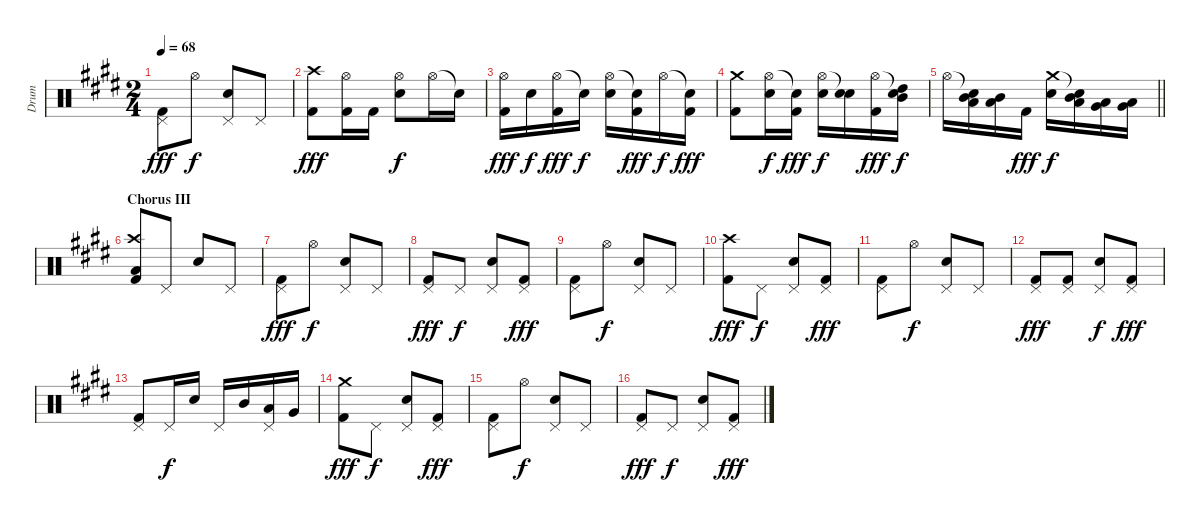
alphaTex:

\track ("Drum" "Drum") {instrument percussion}
\staff {score}
\articulation defaults
\ts (2 4)
\tempo 68
\clef neutral
\ks e
("Pedal Hi-Hat (hit)" "Kick (hit) 2").8{dy fff} "Hi-Hat (open)".8{dy f} ("Pedal Hi-Hat (hit)" "Snare (hit) 2").8 "Pedal Hi-Hat (hit)".8 |
("Crash high (hit)" "Kick (hit) 2").8{dy fff} ("Hi-Hat (open)" "Kick (hit) 2").16 "Kick (hit) 2".16 ("Hi-Hat (open)" "Snare (hit) 2").8{dy f} "Hi-Hat (open)".16 "Snare (hit)"{t}.16 |
("Hi-Hat (open)" "Kick (hit) 2").16{dy fff} "Snare (hit) 2".16{dy f} ("Hi-Hat (open)" "Kick (hit) 2").16{dy fff} "Snare (hit)"{t}.16{dy f} ("Hi-Hat (open)" "Snare (hit) 2").16 ("Snare (hit)"{t} "Kick (hit) 2").16{dy fff} "Hi-Hat (open)".16{dy f} ("Snare (hit)"{t} "Kick (hit) 2").16{dy fff} |
("Crash medium (hit)" "Kick (hit) 2").8 ("Hi-Hat (open)" "Snare (hit) 2").16{dy f} ("Snare (hit)"{t} "Kick (hit) 2").16{dy fff} ("Hi-Hat (open)" "Snare (hit) 2").16{dy f} ("Snare (hit)"{t} "Snare (hit) 2").16 ("Hi-Hat (open)" "Kick (hit) 2").16{dy fff} ("Snare (hit)"{t} "High Tom (hit)" "Mid Tom (hit)").16{dy f} |
\barLineRight lightlight "Hi-Hat (open)".16
("Snare (hit)"{t} "Mid Tom (hit)" "Low Tom (hit)").16 ("Mid Tom (hit)" "Low Tom (hit)").16 "Kick (hit) 2".16{dy fff} ("Crash medium (hit)" "Snare (hit) 2").16{dy f} ("Snare (hit)"{t} "Mid Tom (hit)" "Low Tom (hit)").16 ("Low Tom (hit)" "Very Low Tom (hit)").16 ("Very Low Tom (hit)" "Low Floor Tom (hit)").16 |
\section ("" "Chorus III")
("Crash high (hit)" "Low Floor Tom (hit)" "Kick (hit) 2").8 "Pedal Hi-Hat (hit)".8 "Snare (hit) 2".8 "Pedal Hi-Hat (hit)".8 |
("Pedal Hi-Hat (hit)" "Kick (hit) 2").8{dy fff} "Hi-Hat (open)".8{dy f} ("Pedal Hi-Hat (hit)" "Snare (hit) 2").8 "Pedal Hi-Hat (hit)".8 |
("Pedal Hi-Hat (hit)" "Kick (hit) 2").8{dy fff} "Pedal Hi-Hat (hit)".8{dy f} ("Pedal Hi-Hat (hit)" "Snare (hit) 2").8 ("Pedal Hi-Hat (hit)" "Kick (hit) 2").8{dy fff} |
("Pedal Hi-Hat (hit)" "Kick (hit) 2").8 "Hi-Hat (open)".8{dy f} ("Pedal Hi-Hat (hit)" "Snare (hit) 2").8 "Pedal Hi-Hat (hit)".8 |
("Crash high (hit)" "Kick (hit) 2").8{dy fff} "Pedal Hi-Hat (hit)".8{dy f} ("Pedal Hi-Hat (hit)" "Snare (hit) 2").8 ("Pedal Hi-Hat (hit)" "Kick (hit) 2").8{dy fff} |
("Pedal Hi-Hat (hit)" "Kick (hit) 2").8 "Hi-Hat (open)".8{dy f} ("Pedal Hi-Hat (hit)" "Snare (hit) 2").8 "Pedal Hi-Hat (hit)".8 |
("Pedal Hi-Hat (hit)" "Kick (hit) 2").8{dy fff} ("Pedal Hi-Hat (hit)" "Kick (hit) 2").8 ("Pedal Hi-Hat (hit)" "Snare (hit) 2").8{dy f} ("Pedal Hi-Hat (hit)" "Kick (hit) 2").8{dy fff} |
("Pedal Hi-Hat (hit)" "Kick (hit) 2").8 "Pedal Hi-Hat (hit)".16{dy f} "Snare (hit) 2".16 "Pedal Hi-Hat (hit)".16 "Mid Tom (hit)".16 ("Pedal Hi-Hat (hit)" "Low Tom (hit)").16 "Very Low Tom (hit)".16 |
("Crash medium (hit)" "Kick (hit) 2").8{dy fff} "Pedal Hi-Hat (hit)".8{dy f} ("Pedal Hi-Hat (hit)" "Snare (hit) 2").8 ("Pedal Hi-Hat (hit)" "Kick (hit) 2").8{dy fff} |
("Pedal Hi-Hat (hit)" "Kick (hit) 2").8 "Hi-Hat (open)".8{dy f} ("Pedal Hi-Hat (hit)" "Snare (hit) 2").8 "Pedal Hi-Hat (hit)".8 |
("Pedal Hi-Hat (hit)" "Kick (hit) 2").8{dy fff} "Pedal Hi-Hat (hit)".8{dy f} ("Pedal Hi-Hat (hit)" "Snare (hit) 2").8 ("Pedal Hi-Hat (hit)" "Kick (hit) 2").8{dy fff}
